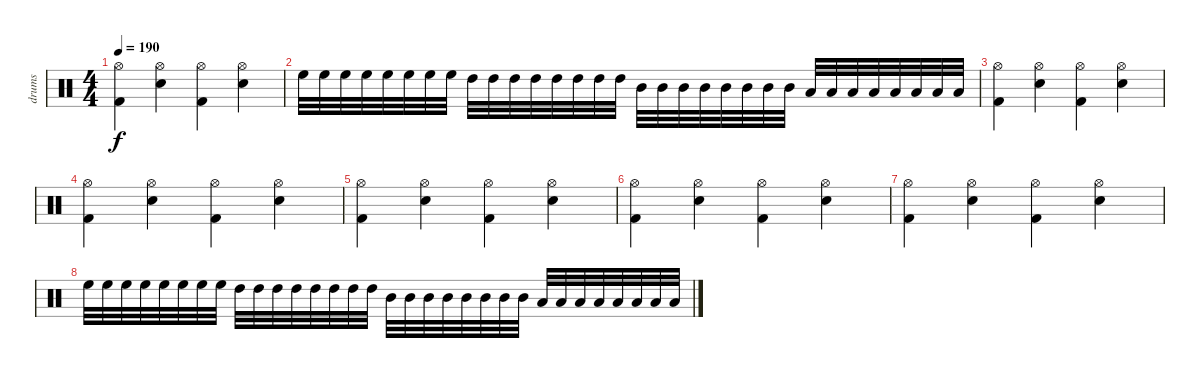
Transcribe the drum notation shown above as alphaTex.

\track ("drums" "drums") {instrument percussion}
\staff {score}
\articulation defaults
\ts (4 4)
\tempo 190
\clef neutral
\ks c
("Kick (hit) 2" "Hi-Hat (open)").4{dy f} ("Hi-Hat (open)" "Snare (hit) 2").4 ("Kick (hit) 2" "Hi-Hat (open)").4 ("Hi-Hat (open)" "Snare (hit) 2").4 |
"High Floor Tom (hit)".32 "High Floor Tom (hit)".32 "High Floor Tom (hit)".32 "High Floor Tom (hit)".32 "High Floor Tom (hit)".32 "High Floor Tom (hit)".32 "High Floor Tom (hit)".32 "High Floor Tom (hit)".32 "High Tom (hit)".32 "High Tom (hit)".32 "High Tom (hit)".32 "High Tom (hit)".32 "High Tom (hit)".32 "High Tom (hit)".32 "High Tom (hit)".32 "High Tom (hit)".32 "Mid Tom (hit)".32 "Mid Tom (hit)".32 "Mid Tom (hit)".32 "Mid Tom (hit)".32 "Mid Tom (hit)".32 "Mid Tom (hit)".32 "Mid Tom (hit)".32 "Mid Tom (hit)".32 "Low Tom (hit)".32 "Low Tom (hit)".32 "Low Tom (hit)".32 "Low Tom (hit)".32 "Low Tom (hit)".32 "Low Tom (hit)".32 "Low Tom (hit)".32 "Low Tom (hit)".32 |
("Kick (hit) 2" "Hi-Hat (open)").4 ("Hi-Hat (open)" "Snare (hit) 2").4 ("Kick (hit) 2" "Hi-Hat (open)").4 ("Hi-Hat (open)" "Snare (hit) 2").4 |
("Kick (hit) 2" "Hi-Hat (open)").4 ("Hi-Hat (open)" "Snare (hit) 2").4 ("Kick (hit) 2" "Hi-Hat (open)").4 ("Hi-Hat (open)" "Snare (hit) 2").4 |
("Kick (hit) 2" "Hi-Hat (open)").4 ("Hi-Hat (open)" "Snare (hit) 2").4 ("Kick (hit) 2" "Hi-Hat (open)").4 ("Hi-Hat (open)" "Snare (hit) 2").4 |
("Kick (hit) 2" "Hi-Hat (open)").4 ("Hi-Hat (open)" "Snare (hit) 2").4 ("Kick (hit) 2" "Hi-Hat (open)").4 ("Hi-Hat (open)" "Snare (hit) 2").4 |
("Kick (hit) 2" "Hi-Hat (open)").4 ("Hi-Hat (open)" "Snare (hit) 2").4 ("Kick (hit) 2" "Hi-Hat (open)").4 ("Hi-Hat (open)" "Snare (hit) 2").4 |
"High Floor Tom (hit)".32 "High Floor Tom (hit)".32 "High Floor Tom (hit)".32 "High Floor Tom (hit)".32 "High Floor Tom (hit)".32 "High Floor Tom (hit)".32 "High Floor Tom (hit)".32 "High Floor Tom (hit)".32 "High Tom (hit)".32 "High Tom (hit)".32 "High Tom (hit)".32 "High Tom (hit)".32 "High Tom (hit)".32 "High Tom (hit)".32 "High Tom (hit)".32 "High Tom (hit)".32 "Mid Tom (hit)".32 "Mid Tom (hit)".32 "Mid Tom (hit)".32 "Mid Tom (hit)".32 "Mid Tom (hit)".32 "Mid Tom (hit)".32 "Mid Tom (hit)".32 "Mid Tom (hit)".32 "Low Tom (hit)".32 "Low Tom (hit)".32 "Low Tom (hit)".32 "Low Tom (hit)".32 "Low Tom (hit)".32 "Low Tom (hit)".32 "Low Tom (hit)".32 "Low Tom (hit)".32
